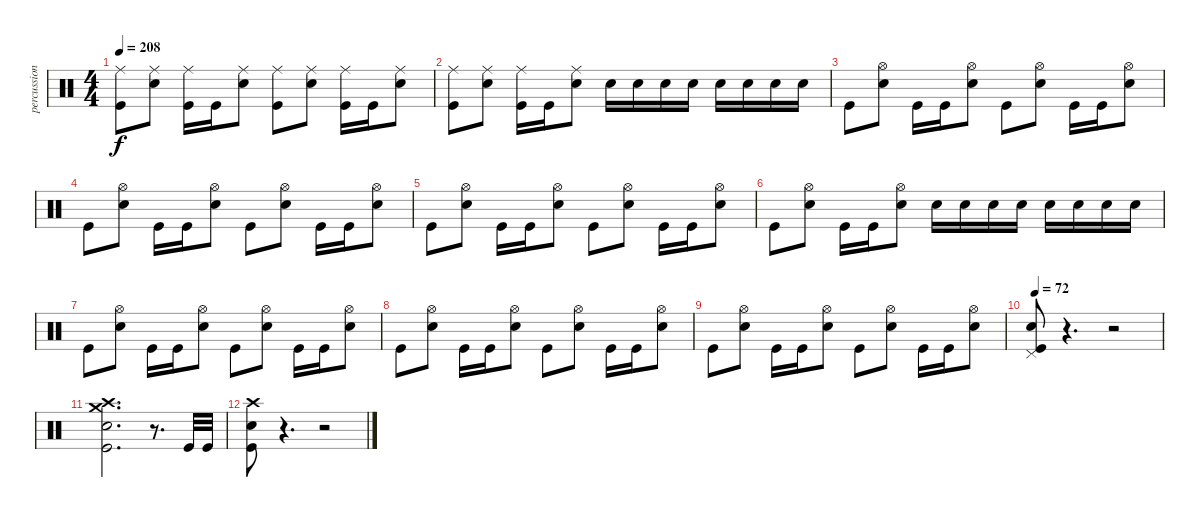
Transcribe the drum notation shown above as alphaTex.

\track ("percussion" "percussion") {instrument percussion}
\staff {score}
\articulation defaults
\ts (4 4)
\tempo 208
\clef neutral
\ks c
("Kick (hit)" "Ride (middle)").8{dy f} ("Electric Snare (hit)" "Ride (middle)").8 ("Kick (hit)" "Ride (middle)").16 "Kick (hit)".16 ("Electric Snare (hit)" "Ride (middle)").8 ("Kick (hit)" "Ride (middle)").8 ("Electric Snare (hit)" "Ride (middle)").8 ("Kick (hit)" "Ride (middle)").16 "Kick (hit)".16 ("Electric Snare (hit)" "Ride (middle)").8 |
("Kick (hit)" "Ride (middle)").8 ("Electric Snare (hit)" "Ride (middle)").8 ("Kick (hit)" "Ride (middle)").16 "Kick (hit)".16 ("Electric Snare (hit)" "Ride (middle)").8 "Electric Snare (hit)".16 "Electric Snare (hit)".16 "Electric Snare (hit)".16 "Electric Snare (hit)".16 "Electric Snare (hit)".16 "Electric Snare (hit)".16 "Electric Snare (hit)".16 "Electric Snare (hit)".16 |
"Kick (hit)".8 ("Electric Snare (hit)" "Hi-Hat (open)").8 "Kick (hit)".16 "Kick (hit)".16 ("Electric Snare (hit)" "Hi-Hat (open)").8 "Kick (hit)".8 ("Electric Snare (hit)" "Hi-Hat (open)").8 "Kick (hit)".16 "Kick (hit)".16 ("Electric Snare (hit)" "Hi-Hat (open)").8 |
"Kick (hit)".8 ("Electric Snare (hit)" "Hi-Hat (open)").8 "Kick (hit)".16 "Kick (hit)".16 ("Electric Snare (hit)" "Hi-Hat (open)").8 "Kick (hit)".8 ("Electric Snare (hit)" "Hi-Hat (open)").8 "Kick (hit)".16 "Kick (hit)".16 ("Electric Snare (hit)" "Hi-Hat (open)").8 |
"Kick (hit)".8 ("Electric Snare (hit)" "Hi-Hat (open)").8 "Kick (hit)".16 "Kick (hit)".16 ("Electric Snare (hit)" "Hi-Hat (open)").8 "Kick (hit)".8 ("Electric Snare (hit)" "Hi-Hat (open)").8 "Kick (hit)".16 "Kick (hit)".16 ("Electric Snare (hit)" "Hi-Hat (open)").8 |
"Kick (hit)".8 ("Electric Snare (hit)" "Hi-Hat (open)").8 "Kick (hit)".16 "Kick (hit)".16 ("Electric Snare (hit)" "Hi-Hat (open)").8 "Electric Snare (hit)".16 "Electric Snare (hit)".16 "Electric Snare (hit)".16 "Electric Snare (hit)".16 "Electric Snare (hit)".16 "Electric Snare (hit)".16 "Electric Snare (hit)".16 "Electric Snare (hit)".16 |
"Kick (hit)".8 ("Electric Snare (hit)" "Hi-Hat (open)").8 "Kick (hit)".16 "Kick (hit)".16 ("Electric Snare (hit)" "Hi-Hat (open)").8 "Kick (hit)".8 ("Electric Snare (hit)" "Hi-Hat (open)").8 "Kick (hit)".16 "Kick (hit)".16 ("Electric Snare (hit)" "Hi-Hat (open)").8 |
"Kick (hit)".8 ("Electric Snare (hit)" "Hi-Hat (open)").8 "Kick (hit)".16 "Kick (hit)".16 ("Electric Snare (hit)" "Hi-Hat (open)").8 "Kick (hit)".8 ("Electric Snare (hit)" "Hi-Hat (open)").8 "Kick (hit)".16 "Kick (hit)".16 ("Electric Snare (hit)" "Hi-Hat (open)").8 |
"Kick (hit)".8 ("Electric Snare (hit)" "Hi-Hat (open)").8 "Kick (hit)".16 "Kick (hit)".16 ("Electric Snare (hit)" "Hi-Hat (open)").8 "Kick (hit)".8 ("Electric Snare (hit)" "Hi-Hat (open)").8 "Kick (hit)".16 "Kick (hit)".16 ("Electric Snare (hit)" "Hi-Hat (open)").8 |
\tempo 72
("Kick (hit)" "Pedal Hi-Hat (hit)" "Electric Snare (hit)").8 r.4{d} r.2 |
("Kick (hit)" "Electric Snare (hit)" "Crash medium (hit)" "Crash high (hit)").2{d} r.8{d} "Kick (hit)".32 "Kick (hit)".32 |
("Electric Snare (hit)" "Kick (hit)" "Crash high (hit)").8 r.4{d} r.2
